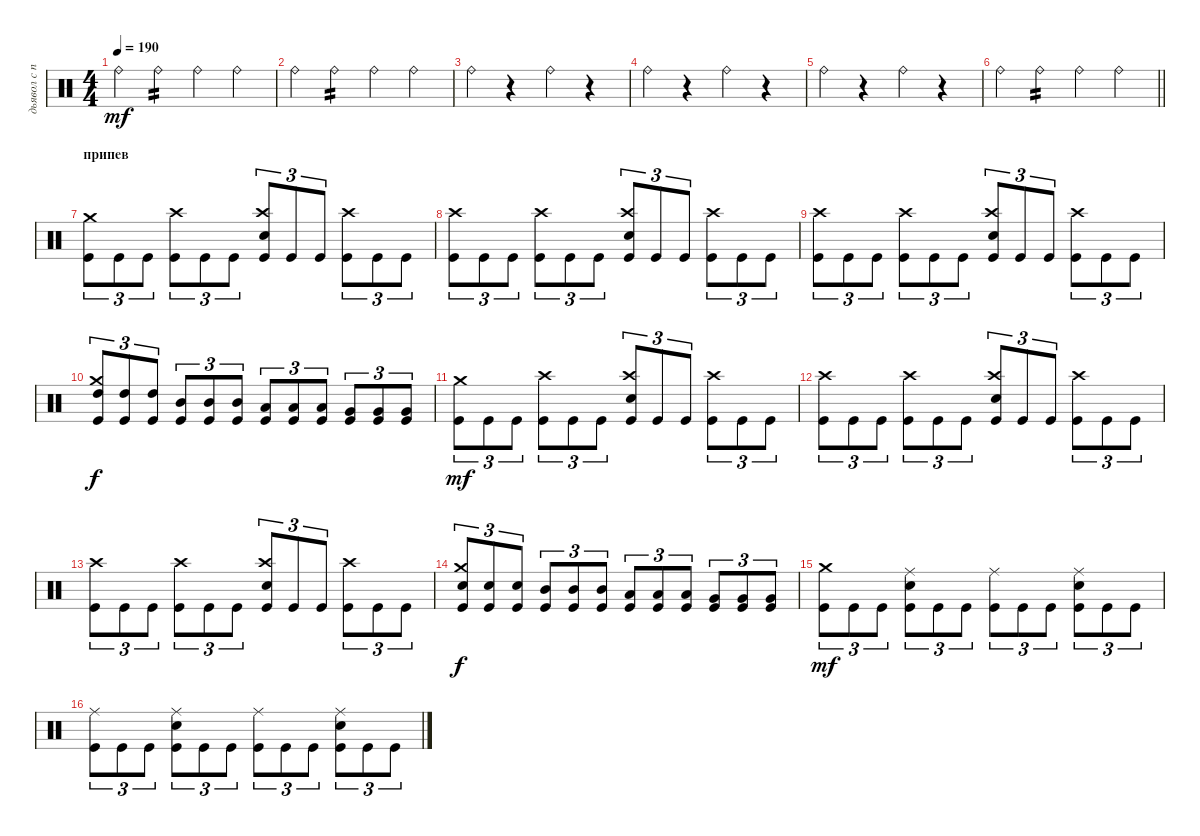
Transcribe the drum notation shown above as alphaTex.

\track ("дьявол с палками" "дьявол с п") {instrument percussion}
\staff {score}
\articulation defaults
\ts (4 4)
\tempo 190
\clef neutral
\ks c "Ride (bell)".4{dy mf} "Ride (bell)".4{tp 2} "Ride (bell)".4 "Ride (bell)".4
|
"Ride (bell)".4 "Ride (bell)".4{tp 2} "Ride (bell)".4 "Ride (bell)".4 |
"Ride (bell)".4 r.4 "Ride (bell)".4 r.4 |
"Ride (bell)".4 r.4 "Ride (bell)".4 r.4 |
"Ride (bell)".4 r.4 "Ride (bell)".4 r.4 |
\barLineRight lightlight "Ride (bell)".4 "Ride (bell)".4{tp 2} "Ride (bell)".4 "Ride (bell)".4
|
\section ("" "припев")
("Kick (hit)" "Crash medium (hit)").8{tu (3 2)} "Kick (hit)".8{tu (3 2)} "Kick (hit)".8{tu (3 2)} ("Kick (hit)" "Crash high (hit)").8{tu (3 2)} "Kick (hit)".8{tu (3 2)} "Kick (hit)".8{tu (3 2)} ("Kick (hit)" "Snare (hit) 2" "Crash high (hit)").8{tu (3 2)} "Kick (hit)".8{tu (3 2)} "Kick (hit)".8{tu (3 2)} ("Kick (hit)" "Crash high (hit)").8{tu (3 2)} "Kick (hit)".8{tu (3 2)} "Kick (hit)".8{tu (3 2)} |
("Kick (hit)" "Crash high (hit)").8{tu (3 2)} "Kick (hit)".8{tu (3 2)} "Kick (hit)".8{tu (3 2)} ("Kick (hit)" "Crash high (hit)").8{tu (3 2)} "Kick (hit)".8{tu (3 2)} "Kick (hit)".8{tu (3 2)} ("Kick (hit)" "Snare (hit) 2" "Crash high (hit)").8{tu (3 2)} "Kick (hit)".8{tu (3 2)} "Kick (hit)".8{tu (3 2)} ("Kick (hit)" "Crash high (hit)").8{tu (3 2)} "Kick (hit)".8{tu (3 2)} "Kick (hit)".8{tu (3 2)} |
("Kick (hit)" "Crash high (hit)").8{tu (3 2)} "Kick (hit)".8{tu (3 2)} "Kick (hit)".8{tu (3 2)} ("Kick (hit)" "Crash high (hit)").8{tu (3 2)} "Kick (hit)".8{tu (3 2)} "Kick (hit)".8{tu (3 2)} ("Kick (hit)" "Snare (hit) 2" "Crash high (hit)").8{tu (3 2)} "Kick (hit)".8{tu (3 2)} "Kick (hit)".8{tu (3 2)} ("Kick (hit)" "Crash high (hit)").8{tu (3 2)} "Kick (hit)".8{tu (3 2)} "Kick (hit)".8{tu (3 2)} |
("Kick (hit)" "Crash medium (hit)" "High Tom (hit)").8{tu (3 2) dy f} ("Kick (hit)" "High Tom (hit)").8{tu (3 2)} ("Kick (hit)" "High Tom (hit)").8{tu (3 2)} ("Kick (hit)" "Mid Tom (hit)").8{tu (3 2)} ("Kick (hit)" "Mid Tom (hit)").8{tu (3 2)} ("Kick (hit)" "Mid Tom (hit)").8{tu (3 2)} ("Kick (hit)" "Low Tom (hit)").8{tu (3 2)} ("Kick (hit)" "Low Tom (hit)").8{tu (3 2)} ("Kick (hit)" "Low Tom (hit)").8{tu (3 2)} ("Kick (hit)" "Very Low Tom (hit)").8{tu (3 2)} ("Kick (hit)" "Very Low Tom (hit)").8{tu (3 2)} ("Kick (hit)" "Very Low Tom (hit)").8{tu (3 2)} |
("Kick (hit)" "Crash medium (hit)").8{tu (3 2) dy mf} "Kick (hit)".8{tu (3 2)} "Kick (hit)".8{tu (3 2)} ("Kick (hit)" "Crash high (hit)").8{tu (3 2)} "Kick (hit)".8{tu (3 2)} "Kick (hit)".8{tu (3 2)} ("Kick (hit)" "Snare (hit) 2" "Crash high (hit)").8{tu (3 2)} "Kick (hit)".8{tu (3 2)} "Kick (hit)".8{tu (3 2)} ("Kick (hit)" "Crash high (hit)").8{tu (3 2)} "Kick (hit)".8{tu (3 2)} "Kick (hit)".8{tu (3 2)} |
("Kick (hit)" "Crash high (hit)").8{tu (3 2)} "Kick (hit)".8{tu (3 2)} "Kick (hit)".8{tu (3 2)} ("Kick (hit)" "Crash high (hit)").8{tu (3 2)} "Kick (hit)".8{tu (3 2)} "Kick (hit)".8{tu (3 2)} ("Kick (hit)" "Snare (hit) 2" "Crash high (hit)").8{tu (3 2)} "Kick (hit)".8{tu (3 2)} "Kick (hit)".8{tu (3 2)} ("Kick (hit)" "Crash high (hit)").8{tu (3 2)} "Kick (hit)".8{tu (3 2)} "Kick (hit)".8{tu (3 2)} |
("Kick (hit)" "Crash high (hit)").8{tu (3 2)} "Kick (hit)".8{tu (3 2)} "Kick (hit)".8{tu (3 2)} ("Kick (hit)" "Crash high (hit)").8{tu (3 2)} "Kick (hit)".8{tu (3 2)} "Kick (hit)".8{tu (3 2)} ("Kick (hit)" "Snare (hit) 2" "Crash high (hit)").8{tu (3 2)} "Kick (hit)".8{tu (3 2)} "Kick (hit)".8{tu (3 2)} ("Kick (hit)" "Crash high (hit)").8{tu (3 2)} "Kick (hit)".8{tu (3 2)} "Kick (hit)".8{tu (3 2)} |
("Kick (hit)" "Crash medium (hit)" "Snare (hit) 2").8{tu (3 2) dy f} ("Kick (hit)" "Snare (hit) 2").8{tu (3 2)} ("Kick (hit)" "Snare (hit) 2").8{tu (3 2)} ("Kick (hit)" "Mid Tom (hit)").8{tu (3 2)} ("Kick (hit)" "Mid Tom (hit)").8{tu (3 2)} ("Kick (hit)" "Mid Tom (hit)").8{tu (3 2)} ("Kick (hit)" "Low Tom (hit)").8{tu (3 2)} ("Kick (hit)" "Low Tom (hit)").8{tu (3 2)} ("Kick (hit)" "Low Tom (hit)").8{tu (3 2)} ("Kick (hit)" "Very Low Tom (hit)").8{tu (3 2)} ("Kick (hit)" "Very Low Tom (hit)").8{tu (3 2)} ("Kick (hit)" "Very Low Tom (hit)").8{tu (3 2)} |
("Kick (hit)" "Crash medium (hit)").8{tu (3 2) dy mf} "Kick (hit)".8{tu (3 2)} "Kick (hit)".8{tu (3 2)} ("Kick (hit)" "Snare (hit) 2" "Ride (middle)").8{tu (3 2)} "Kick (hit)".8{tu (3 2)} "Kick (hit)".8{tu (3 2)} ("Kick (hit)" "Ride (middle)").8{tu (3 2)} "Kick (hit)".8{tu (3 2)} "Kick (hit)".8{tu (3 2)} ("Kick (hit)" "Snare (hit) 2" "Ride (middle)").8{tu (3 2)} "Kick (hit)".8{tu (3 2)} "Kick (hit)".8{tu (3 2)} |
("Kick (hit)" "Ride (middle)").8{tu (3 2)} "Kick (hit)".8{tu (3 2)} "Kick (hit)".8{tu (3 2)} ("Kick (hit)" "Snare (hit) 2" "Ride (middle)").8{tu (3 2)} "Kick (hit)".8{tu (3 2)} "Kick (hit)".8{tu (3 2)} ("Kick (hit)" "Ride (middle)").8{tu (3 2)} "Kick (hit)".8{tu (3 2)} "Kick (hit)".8{tu (3 2)} ("Kick (hit)" "Snare (hit) 2" "Ride (middle)").8{tu (3 2)} "Kick (hit)".8{tu (3 2)} "Kick (hit)".8{tu (3 2)}
